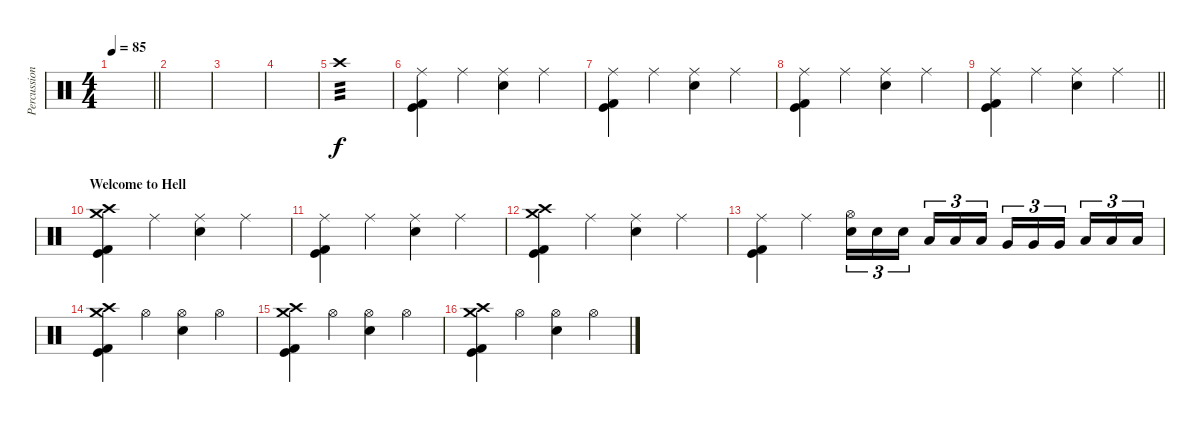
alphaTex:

\track ("Percussion" "Percussion") {instrument percussion}
\staff {score}
\articulation defaults
\ts (4 4)
\tempo 85
\clef neutral
\barLineRight lightlight
\ks c
|
|
|
|
"Crash high (hit)".1{tp 3 volume 13} |
("Ride (middle)" "Kick (hit) 2" "Kick (hit)").4 "Ride (middle)".4 ("Ride (middle)" "Snare (hit) 2").4 "Ride (middle)".4 |
("Ride (middle)" "Kick (hit) 2" "Kick (hit)").4 "Ride (middle)".4 ("Ride (middle)" "Snare (hit) 2").4 "Ride (middle)".4 |
("Ride (middle)" "Kick (hit) 2" "Kick (hit)").4 "Ride (middle)".4 ("Ride (middle)" "Snare (hit) 2").4 "Ride (middle)".4 |
\barLineRight lightlight
("Ride (middle)" "Kick (hit) 2" "Kick (hit)").4 "Ride (middle)".4 ("Ride (middle)" "Snare (hit) 2").4 "Ride (middle)".4 |
\section ("" "Welcome to Hell")
("Crash high (hit)" "Crash medium (hit)" "Kick (hit) 2" "Kick (hit)").4 "Ride (middle)".4 ("Ride (middle)" "Snare (hit) 2").4 "Ride (middle)".4 |
("Ride (middle)" "Kick (hit) 2" "Kick (hit)").4 "Ride (middle)".4 ("Ride (middle)" "Snare (hit) 2").4 "Ride (middle)".4 |
("Crash high (hit)" "Crash medium (hit)" "Kick (hit) 2" "Kick (hit)").4 "Ride (middle)".4 ("Ride (middle)" "Snare (hit) 2").4 "Ride (middle)".4 |
("Ride (middle)" "Kick (hit) 2" "Kick (hit)").4 "Ride (middle)".4 ("Hi-Hat (open)" "Snare (hit) 2").16{tu (3 2)} "Snare (hit) 2".16{tu (3 2)} "Snare (hit) 2".16{tu (3 2) beam splitsecondary} "Low Tom (hit)".16{tu (3 2)} "Low Tom (hit)".16{tu (3 2)} "Low Tom (hit)".16{tu (3 2)} "Very Low Tom (hit)".16{tu (3 2)} "Very Low Tom (hit)".16{tu (3 2)} "Very Low Tom (hit)".16{tu (3 2) beam splitsecondary} "Low Floor Tom (hit)".16{tu (3 2)} "Low Floor Tom (hit)".16{tu (3 2)} "Low Floor Tom (hit)".16{tu (3 2)} |
("Crash high (hit)" "Crash medium (hit)" "Kick (hit) 2" "Kick (hit)").4 "Hi-Hat (open)".4 ("Hi-Hat (open)" "Snare (hit) 2").4 "Hi-Hat (open)".4 |
("Crash high (hit)" "Crash medium (hit)" "Kick (hit) 2" "Kick (hit)").4 "Hi-Hat (open)".4 ("Hi-Hat (open)" "Snare (hit) 2").4 "Hi-Hat (open)".4 |
("Crash high (hit)" "Crash medium (hit)" "Kick (hit) 2" "Kick (hit)").4 "Hi-Hat (open)".4 ("Hi-Hat (open)" "Snare (hit) 2").4 "Hi-Hat (open)".4
